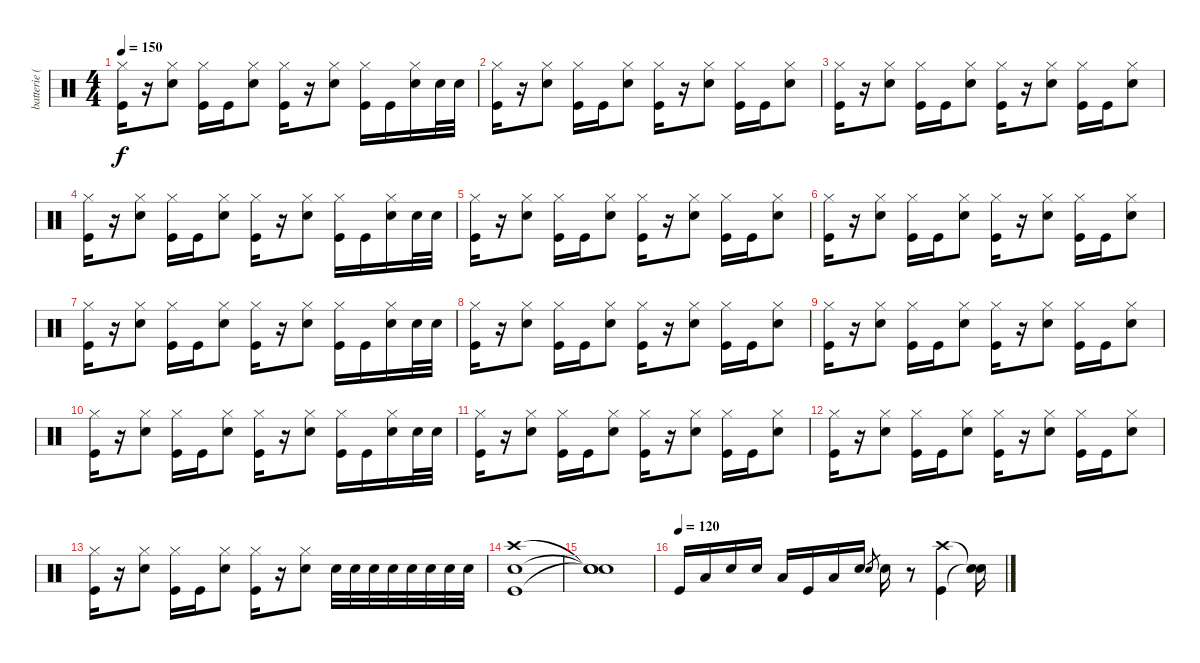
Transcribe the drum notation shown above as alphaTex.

\track ("batterie ( Yan ) " "batterie (") {instrument percussion}
\staff {score}
\articulation defaults
\ts (4 4)
\tempo 150
\clef neutral
\ks c
("Hi-Hat (closed)" "Kick (hit)").16{dy f} r.16 ("Hi-Hat (closed)" "Snare (hit) 2").8 ("Hi-Hat (closed)" "Kick (hit)").16 "Kick (hit)".16 ("Hi-Hat (closed)" "Snare (hit) 2").8 ("Hi-Hat (closed)" "Kick (hit)").16 r.16 ("Hi-Hat (closed)" "Snare (hit) 2").8 ("Hi-Hat (closed)" "Kick (hit)").16 "Kick (hit)".16 ("Hi-Hat (closed)" "Snare (hit) 2").16 "Snare (hit) 2".32 "Snare (hit) 2".32 |
("Hi-Hat (closed)" "Kick (hit)").16 r.16 ("Hi-Hat (closed)" "Snare (hit) 2").8 ("Hi-Hat (closed)" "Kick (hit)").16 "Kick (hit)".16 ("Hi-Hat (closed)" "Snare (hit) 2").8 ("Hi-Hat (closed)" "Kick (hit)").16 r.16 ("Hi-Hat (closed)" "Snare (hit) 2").8 ("Hi-Hat (closed)" "Kick (hit)").16 "Kick (hit)".16 ("Hi-Hat (closed)" "Snare (hit) 2").8 |
("Hi-Hat (closed)" "Kick (hit)").16 r.16 ("Hi-Hat (closed)" "Snare (hit) 2").8 ("Hi-Hat (closed)" "Kick (hit)").16 "Kick (hit)".16 ("Hi-Hat (closed)" "Snare (hit) 2").8 ("Hi-Hat (closed)" "Kick (hit)").16 r.16 ("Hi-Hat (closed)" "Snare (hit) 2").8 ("Hi-Hat (closed)" "Kick (hit)").16 "Kick (hit)".16 ("Hi-Hat (closed)" "Snare (hit) 2").8 |
("Hi-Hat (closed)" "Kick (hit)").16 r.16 ("Hi-Hat (closed)" "Snare (hit) 2").8 ("Hi-Hat (closed)" "Kick (hit)").16 "Kick (hit)".16 ("Hi-Hat (closed)" "Snare (hit) 2").8 ("Hi-Hat (closed)" "Kick (hit)").16 r.16 ("Hi-Hat (closed)" "Snare (hit) 2").8 ("Hi-Hat (closed)" "Kick (hit)").16 "Kick (hit)".16 ("Hi-Hat (closed)" "Snare (hit) 2").16 "Snare (hit) 2".32 "Snare (hit) 2".32 |
("Hi-Hat (closed)" "Kick (hit)").16 r.16 ("Hi-Hat (closed)" "Snare (hit) 2").8 ("Hi-Hat (closed)" "Kick (hit)").16 "Kick (hit)".16 ("Hi-Hat (closed)" "Snare (hit) 2").8 ("Hi-Hat (closed)" "Kick (hit)").16 r.16 ("Hi-Hat (closed)" "Snare (hit) 2").8 ("Hi-Hat (closed)" "Kick (hit)").16 "Kick (hit)".16 ("Hi-Hat (closed)" "Snare (hit) 2").8 |
("Hi-Hat (closed)" "Kick (hit)").16 r.16 ("Hi-Hat (closed)" "Snare (hit) 2").8 ("Hi-Hat (closed)" "Kick (hit)").16 "Kick (hit)".16 ("Hi-Hat (closed)" "Snare (hit) 2").8 ("Hi-Hat (closed)" "Kick (hit)").16 r.16 ("Hi-Hat (closed)" "Snare (hit) 2").8 ("Hi-Hat (closed)" "Kick (hit)").16 "Kick (hit)".16 ("Hi-Hat (closed)" "Snare (hit) 2").8 |
("Hi-Hat (closed)" "Kick (hit)").16 r.16 ("Hi-Hat (closed)" "Snare (hit) 2").8 ("Hi-Hat (closed)" "Kick (hit)").16 "Kick (hit)".16 ("Hi-Hat (closed)" "Snare (hit) 2").8 ("Hi-Hat (closed)" "Kick (hit)").16 r.16 ("Hi-Hat (closed)" "Snare (hit) 2").8 ("Hi-Hat (closed)" "Kick (hit)").16 "Kick (hit)".16 ("Hi-Hat (closed)" "Snare (hit) 2").16 "Snare (hit) 2".32 "Snare (hit) 2".32 |
("Hi-Hat (closed)" "Kick (hit)").16 r.16 ("Hi-Hat (closed)" "Snare (hit) 2").8 ("Hi-Hat (closed)" "Kick (hit)").16 "Kick (hit)".16 ("Hi-Hat (closed)" "Snare (hit) 2").8 ("Hi-Hat (closed)" "Kick (hit)").16 r.16 ("Hi-Hat (closed)" "Snare (hit) 2").8 ("Hi-Hat (closed)" "Kick (hit)").16 "Kick (hit)".16 ("Hi-Hat (closed)" "Snare (hit) 2").8 |
("Hi-Hat (closed)" "Kick (hit)").16 r.16 ("Hi-Hat (closed)" "Snare (hit) 2").8 ("Hi-Hat (closed)" "Kick (hit)").16 "Kick (hit)".16 ("Hi-Hat (closed)" "Snare (hit) 2").8 ("Hi-Hat (closed)" "Kick (hit)").16 r.16 ("Hi-Hat (closed)" "Snare (hit) 2").8 ("Hi-Hat (closed)" "Kick (hit)").16 "Kick (hit)".16 ("Hi-Hat (closed)" "Snare (hit) 2").8 |
("Hi-Hat (closed)" "Kick (hit)").16 r.16 ("Hi-Hat (closed)" "Snare (hit) 2").8 ("Hi-Hat (closed)" "Kick (hit)").16 "Kick (hit)".16 ("Hi-Hat (closed)" "Snare (hit) 2").8 ("Hi-Hat (closed)" "Kick (hit)").16 r.16 ("Hi-Hat (closed)" "Snare (hit) 2").8 ("Hi-Hat (closed)" "Kick (hit)").16 "Kick (hit)".16 ("Hi-Hat (closed)" "Snare (hit) 2").16 "Snare (hit) 2".32 "Snare (hit) 2".32 |
("Hi-Hat (closed)" "Kick (hit)").16 r.16 ("Hi-Hat (closed)" "Snare (hit) 2").8 ("Hi-Hat (closed)" "Kick (hit)").16 "Kick (hit)".16 ("Hi-Hat (closed)" "Snare (hit) 2").8 ("Hi-Hat (closed)" "Kick (hit)").16 r.16 ("Hi-Hat (closed)" "Snare (hit) 2").8 ("Hi-Hat (closed)" "Kick (hit)").16 "Kick (hit)".16 ("Hi-Hat (closed)" "Snare (hit) 2").8 |
("Hi-Hat (closed)" "Kick (hit)").16 r.16 ("Hi-Hat (closed)" "Snare (hit) 2").8 ("Hi-Hat (closed)" "Kick (hit)").16 "Kick (hit)".16 ("Hi-Hat (closed)" "Snare (hit) 2").8 ("Hi-Hat (closed)" "Kick (hit)").16 r.16 ("Hi-Hat (closed)" "Snare (hit) 2").8 ("Hi-Hat (closed)" "Kick (hit)").16 "Kick (hit)".16 ("Hi-Hat (closed)" "Snare (hit) 2").8 |
("Hi-Hat (closed)" "Kick (hit)").16 r.16 ("Hi-Hat (closed)" "Snare (hit) 2").8 ("Hi-Hat (closed)" "Kick (hit)").16 "Kick (hit)".16 ("Hi-Hat (closed)" "Snare (hit) 2").8 ("Hi-Hat (closed)" "Kick (hit)").16 r.16 ("Hi-Hat (closed)" "Snare (hit) 2").8 "Snare (hit) 2".32 "Snare (hit) 2".32 "Snare (hit) 2".32 "Snare (hit) 2".32 "Snare (hit) 2".32 "Snare (hit) 2".32 "Snare (hit) 2".32 "Snare (hit) 2".32 |
("Crash high (hit)" "Snare (hit) 2" "Kick (hit)").1 |
("Snare (hit)"{t} "Snare (hit)"{t} "Snare (hit)"{t}).1 |
\tempo (120)
"Kick (hit)".16 "Low Floor Tom (hit)".16 "Snare (hit) 2".16 "Snare (hit) 2".16 "Low Floor Tom (hit)".16 "Kick (hit)".16 "Low Floor Tom (hit)".16 "Snare (hit) 2".16 "Snare (hit) 2".8{gr} "Snare (hit) 2".16 r.8 ("Crash high (hit)" "Kick (hit)").4 ("Snare (hit)"{t} "Snare (hit)"{t}).16
